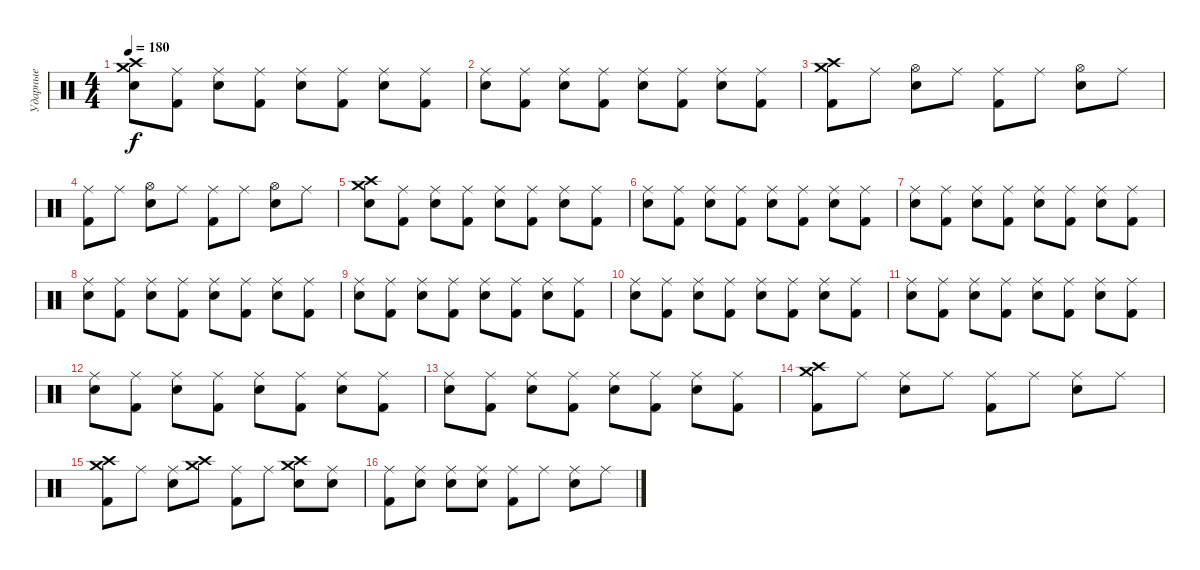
\track ("Ударные" "Ударные") {instrument percussion}
\staff {score}
\articulation defaults
\ts (4 4)
\tempo 180
\clef neutral
\ks c
("Crash high (hit)" "Snare (hit) 2" "Crash medium (hit)").8{dy f} ("Ride (middle)" "Kick (hit) 2").8 ("Ride (middle)" "Snare (hit) 2").8 ("Ride (middle)" "Kick (hit) 2").8 ("Ride (middle)" "Snare (hit) 2").8 ("Ride (middle)" "Kick (hit) 2").8 ("Ride (middle)" "Snare (hit) 2").8 ("Ride (middle)" "Kick (hit) 2").8 |
("Ride (middle)" "Snare (hit) 2").8 ("Ride (middle)" "Kick (hit) 2").8 ("Ride (middle)" "Snare (hit) 2").8 ("Ride (middle)" "Kick (hit) 2").8 ("Ride (middle)" "Snare (hit) 2").8 ("Ride (middle)" "Kick (hit) 2").8 ("Ride (middle)" "Snare (hit) 2").8 ("Ride (middle)" "Kick (hit) 2").8 |
("Crash high (hit)" "Crash medium (hit)" "Kick (hit) 2").8 "Ride (middle)".8 ("Hi-Hat (open)" "Snare (hit) 2").8 "Ride (middle)".8 ("Ride (middle)" "Kick (hit) 2").8 "Ride (middle)".8 ("Hi-Hat (open)" "Snare (hit) 2").8 "Ride (middle)".8 |
("Ride (middle)" "Kick (hit) 2").8 "Ride (middle)".8 ("Hi-Hat (open)" "Snare (hit) 2").8 "Ride (middle)".8 ("Ride (middle)" "Kick (hit) 2").8 "Ride (middle)".8 ("Hi-Hat (open)" "Snare (hit) 2").8 "Ride (middle)".8 |
("Crash high (hit)" "Snare (hit) 2" "Crash medium (hit)").8 ("Ride (middle)" "Kick (hit) 2").8 ("Ride (middle)" "Snare (hit) 2").8 ("Ride (middle)" "Kick (hit) 2").8 ("Ride (middle)" "Snare (hit) 2").8 ("Ride (middle)" "Kick (hit) 2").8 ("Ride (middle)" "Snare (hit) 2").8 ("Ride (middle)" "Kick (hit) 2").8 |
("Ride (middle)" "Snare (hit) 2").8 ("Ride (middle)" "Kick (hit) 2").8 ("Ride (middle)" "Snare (hit) 2").8 ("Ride (middle)" "Kick (hit) 2").8 ("Ride (middle)" "Snare (hit) 2").8 ("Ride (middle)" "Kick (hit) 2").8 ("Ride (middle)" "Snare (hit) 2").8 ("Ride (middle)" "Kick (hit) 2").8 |
("Ride (middle)" "Snare (hit) 2").8 ("Ride (middle)" "Kick (hit) 2").8 ("Ride (middle)" "Snare (hit) 2").8 ("Ride (middle)" "Kick (hit) 2").8 ("Ride (middle)" "Snare (hit) 2").8 ("Ride (middle)" "Kick (hit) 2").8 ("Ride (middle)" "Snare (hit) 2").8 ("Ride (middle)" "Kick (hit) 2").8 |
("Ride (middle)" "Snare (hit) 2").8 ("Ride (middle)" "Kick (hit) 2").8 ("Ride (middle)" "Snare (hit) 2").8 ("Ride (middle)" "Kick (hit) 2").8 ("Ride (middle)" "Snare (hit) 2").8 ("Ride (middle)" "Kick (hit) 2").8 ("Ride (middle)" "Snare (hit) 2").8 ("Ride (middle)" "Kick (hit) 2").8 |
("Ride (middle)" "Snare (hit) 2").8 ("Ride (middle)" "Kick (hit) 2").8 ("Ride (middle)" "Snare (hit) 2").8 ("Ride (middle)" "Kick (hit) 2").8 ("Ride (middle)" "Snare (hit) 2").8 ("Ride (middle)" "Kick (hit) 2").8 ("Ride (middle)" "Snare (hit) 2").8 ("Ride (middle)" "Kick (hit) 2").8 |
("Ride (middle)" "Snare (hit) 2").8 ("Ride (middle)" "Kick (hit) 2").8 ("Ride (middle)" "Snare (hit) 2").8 ("Ride (middle)" "Kick (hit) 2").8 ("Ride (middle)" "Snare (hit) 2").8 ("Ride (middle)" "Kick (hit) 2").8 ("Ride (middle)" "Snare (hit) 2").8 ("Ride (middle)" "Kick (hit) 2").8 |
("Ride (middle)" "Snare (hit) 2").8 ("Ride (middle)" "Kick (hit) 2").8 ("Ride (middle)" "Snare (hit) 2").8 ("Ride (middle)" "Kick (hit) 2").8 ("Ride (middle)" "Snare (hit) 2").8 ("Ride (middle)" "Kick (hit) 2").8 ("Ride (middle)" "Snare (hit) 2").8 ("Ride (middle)" "Kick (hit) 2").8 |
("Ride (middle)" "Snare (hit) 2").8 ("Ride (middle)" "Kick (hit) 2").8 ("Ride (middle)" "Snare (hit) 2").8 ("Ride (middle)" "Kick (hit) 2").8 ("Ride (middle)" "Snare (hit) 2").8 ("Ride (middle)" "Kick (hit) 2").8 ("Ride (middle)" "Snare (hit) 2").8 ("Ride (middle)" "Kick (hit) 2").8 |
("Ride (middle)" "Snare (hit) 2").8 ("Ride (middle)" "Kick (hit) 2").8 ("Ride (middle)" "Snare (hit) 2").8 ("Ride (middle)" "Kick (hit) 2").8 ("Ride (middle)" "Snare (hit) 2").8 ("Ride (middle)" "Kick (hit) 2").8 ("Ride (middle)" "Snare (hit) 2").8 ("Ride (middle)" "Kick (hit) 2").8 |
("Crash high (hit)" "Crash medium (hit)" "Kick (hit) 2").8 "Ride (middle)".8 ("Ride (middle)" "Snare (hit) 2").8 "Ride (middle)".8 ("Ride (middle)" "Kick (hit) 2").8 "Ride (middle)".8 ("Ride (middle)" "Snare (hit) 2").8 "Ride (middle)".8 |
("Crash high (hit)" "Crash medium (hit)" "Kick (hit) 2").8 "Ride (middle)".8 ("Ride (middle)" "Snare (hit) 2").8 ("Crash high (hit)" "Crash medium (hit)").8 ("Ride (middle)" "Kick (hit) 2").8 "Ride (middle)".8 ("Crash high (hit)" "Snare (hit) 2" "Crash medium (hit)").8 ("Ride (middle)" "Snare (hit) 2").8 |
("Ride (middle)" "Kick (hit) 2").8 ("Ride (middle)" "Snare (hit) 2").8 ("Ride (middle)" "Snare (hit) 2").8 ("Ride (middle)" "Snare (hit) 2").8 ("Ride (middle)" "Kick (hit) 2").8 "Ride (middle)".8 ("Ride (middle)" "Snare (hit) 2").8 "Ride (middle)".8
